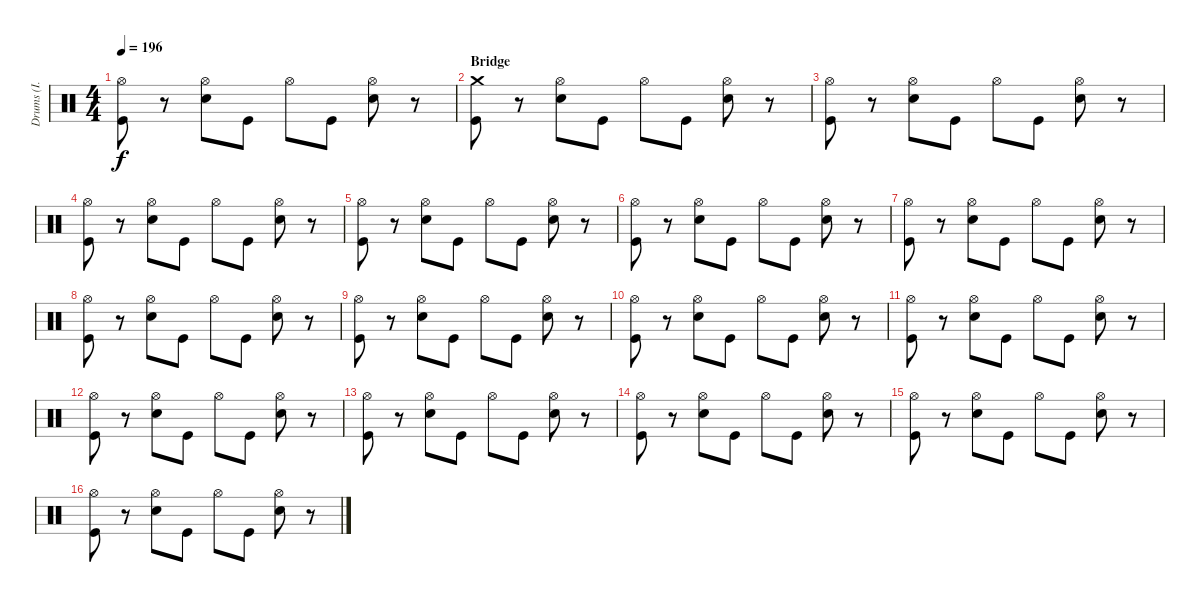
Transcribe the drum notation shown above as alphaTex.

\track ("Drums (I. Paice)" "Drums (I. ") {instrument percussion}
\staff {score}
\articulation defaults
\ts (4 4)
\tempo 196
\clef neutral
\ks c
("Hi-Hat (open)" "Kick (hit)").8{dy f} r.8 ("Hi-Hat (open)" "Snare (hit) 2").8 "Kick (hit)".8 "Hi-Hat (open)".8 "Kick (hit)".8 ("Hi-Hat (open)" "Snare (hit) 2").8 r.8 |
\section ("" "Bridge")
("Crash medium (hit)" "Kick (hit)").8 r.8 ("Hi-Hat (open)" "Snare (hit) 2").8 "Kick (hit)".8 "Hi-Hat (open)".8 "Kick (hit)".8 ("Hi-Hat (open)" "Snare (hit) 2").8 r.8 |
("Hi-Hat (open)" "Kick (hit)").8 r.8 ("Hi-Hat (open)" "Snare (hit) 2").8 "Kick (hit)".8 "Hi-Hat (open)".8 "Kick (hit)".8 ("Hi-Hat (open)" "Snare (hit) 2").8 r.8 |
("Hi-Hat (open)" "Kick (hit)").8 r.8 ("Hi-Hat (open)" "Snare (hit) 2").8 "Kick (hit)".8 "Hi-Hat (open)".8 "Kick (hit)".8 ("Hi-Hat (open)" "Snare (hit) 2").8 r.8 |
("Hi-Hat (open)" "Kick (hit)").8 r.8 ("Hi-Hat (open)" "Snare (hit) 2").8 "Kick (hit)".8 "Hi-Hat (open)".8 "Kick (hit)".8 ("Hi-Hat (open)" "Snare (hit) 2").8 r.8 |
("Hi-Hat (open)" "Kick (hit)").8 r.8 ("Hi-Hat (open)" "Snare (hit) 2").8 "Kick (hit)".8 "Hi-Hat (open)".8 "Kick (hit)".8 ("Hi-Hat (open)" "Snare (hit) 2").8 r.8 |
("Hi-Hat (open)" "Kick (hit)").8 r.8 ("Hi-Hat (open)" "Snare (hit) 2").8 "Kick (hit)".8 "Hi-Hat (open)".8 "Kick (hit)".8 ("Hi-Hat (open)" "Snare (hit) 2").8 r.8 |
("Hi-Hat (open)" "Kick (hit)").8 r.8 ("Hi-Hat (open)" "Snare (hit) 2").8 "Kick (hit)".8 "Hi-Hat (open)".8 "Kick (hit)".8 ("Hi-Hat (open)" "Snare (hit) 2").8 r.8 |
("Hi-Hat (open)" "Kick (hit)").8 r.8 ("Hi-Hat (open)" "Snare (hit) 2").8 "Kick (hit)".8 "Hi-Hat (open)".8 "Kick (hit)".8 ("Hi-Hat (open)" "Snare (hit) 2").8 r.8 |
("Hi-Hat (open)" "Kick (hit)").8 r.8 ("Hi-Hat (open)" "Snare (hit) 2").8 "Kick (hit)".8 "Hi-Hat (open)".8 "Kick (hit)".8 ("Hi-Hat (open)" "Snare (hit) 2").8 r.8 |
("Hi-Hat (open)" "Kick (hit)").8 r.8 ("Hi-Hat (open)" "Snare (hit) 2").8 "Kick (hit)".8 "Hi-Hat (open)".8 "Kick (hit)".8 ("Hi-Hat (open)" "Snare (hit) 2").8 r.8 |
("Hi-Hat (open)" "Kick (hit)").8 r.8 ("Hi-Hat (open)" "Snare (hit) 2").8 "Kick (hit)".8 "Hi-Hat (open)".8 "Kick (hit)".8 ("Hi-Hat (open)" "Snare (hit) 2").8 r.8 |
("Hi-Hat (open)" "Kick (hit)").8 r.8 ("Hi-Hat (open)" "Snare (hit) 2").8 "Kick (hit)".8 "Hi-Hat (open)".8 "Kick (hit)".8 ("Hi-Hat (open)" "Snare (hit) 2").8 r.8 |
("Hi-Hat (open)" "Kick (hit)").8 r.8 ("Hi-Hat (open)" "Snare (hit) 2").8 "Kick (hit)".8 "Hi-Hat (open)".8 "Kick (hit)".8 ("Hi-Hat (open)" "Snare (hit) 2").8 r.8 |
("Hi-Hat (open)" "Kick (hit)").8 r.8 ("Hi-Hat (open)" "Snare (hit) 2").8 "Kick (hit)".8 "Hi-Hat (open)".8 "Kick (hit)".8 ("Hi-Hat (open)" "Snare (hit) 2").8 r.8 |
("Hi-Hat (open)" "Kick (hit)").8 r.8 ("Hi-Hat (open)" "Snare (hit) 2").8 "Kick (hit)".8 "Hi-Hat (open)".8 "Kick (hit)".8 ("Hi-Hat (open)" "Snare (hit) 2").8 r.8
